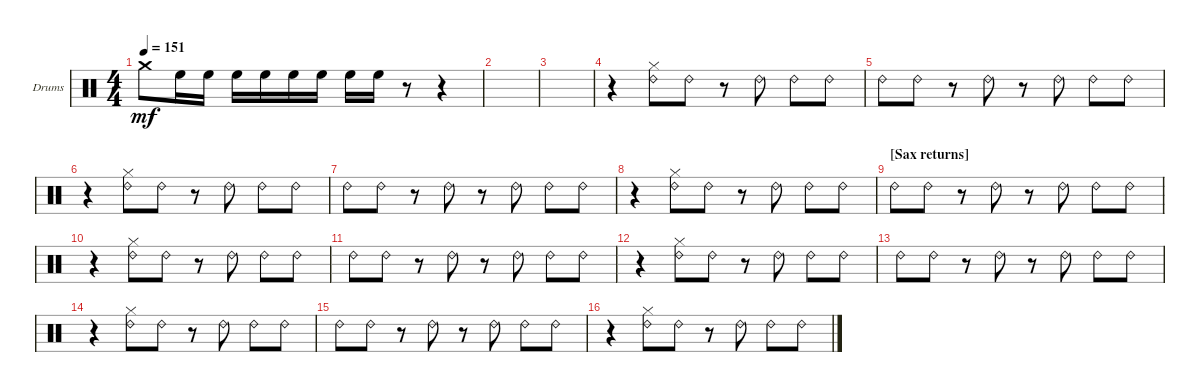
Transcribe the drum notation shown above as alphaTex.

\bracketExtendMode groupsimilarinstruments
\firstSystemTrackNameOrientation horizontal
\otherSystemsTrackNameOrientation horizontal
\track ("Drumkit" "Drums") {instrument percussion}
\staff {score}
\articulation defaults
\ts (4 4)
\tempo 151
\clef neutral
\ks aminor "Crash medium (hit)"{t}.8{dy mf} "High Floor Tom (hit)".16 "High Floor Tom (hit)".16 "High Floor Tom (hit)".16 "High Floor Tom (hit)".16 "High Floor Tom (hit)".16 "High Floor Tom (hit)".16 "High Floor Tom (hit)".16 "High Floor Tom (hit)".16
r.8 r.4 |
|
|
r.4 ("Ride (bell) 2" "Hi-Hat (closed)").8 "Ride (bell) 2".8 r.8 "Ride (bell) 2".8 "Ride (bell) 2".8 "Ride (bell) 2".8 |
"Ride (bell) 2".8 "Ride (bell) 2".8 r.8 "Ride (bell) 2".8 r.8 "Ride (bell) 2".8 "Ride (bell) 2".8 "Ride (bell) 2".8 |
r.4 ("Ride (bell) 2" "Hi-Hat (closed)").8 "Ride (bell) 2".8 r.8 "Ride (bell) 2".8 "Ride (bell) 2".8 "Ride (bell) 2".8 |
"Ride (bell) 2".8 "Ride (bell) 2".8 r.8 "Ride (bell) 2".8 r.8 "Ride (bell) 2".8 "Ride (bell) 2".8 "Ride (bell) 2".8 |
r.4 ("Ride (bell) 2" "Hi-Hat (closed)").8 "Ride (bell) 2".8 r.8 "Ride (bell) 2".8 "Ride (bell) 2".8 "Ride (bell) 2".8 |
\section ("" "[Sax returns]")
"Ride (bell) 2".8 "Ride (bell) 2".8 r.8 "Ride (bell) 2".8 r.8 "Ride (bell) 2".8 "Ride (bell) 2".8 "Ride (bell) 2".8 |
r.4 ("Ride (bell) 2" "Hi-Hat (closed)").8 "Ride (bell) 2".8 r.8 "Ride (bell) 2".8 "Ride (bell) 2".8 "Ride (bell) 2".8 |
"Ride (bell) 2".8 "Ride (bell) 2".8 r.8 "Ride (bell) 2".8 r.8 "Ride (bell) 2".8 "Ride (bell) 2".8 "Ride (bell) 2".8 |
r.4 ("Ride (bell) 2" "Hi-Hat (closed)").8 "Ride (bell) 2".8 r.8 "Ride (bell) 2".8 "Ride (bell) 2".8 "Ride (bell) 2".8 |
"Ride (bell) 2".8 "Ride (bell) 2".8 r.8 "Ride (bell) 2".8 r.8 "Ride (bell) 2".8 "Ride (bell) 2".8 "Ride (bell) 2".8 |
r.4 ("Ride (bell) 2" "Hi-Hat (closed)").8 "Ride (bell) 2".8 r.8 "Ride (bell) 2".8 "Ride (bell) 2".8 "Ride (bell) 2".8 |
"Ride (bell) 2".8 "Ride (bell) 2".8 r.8 "Ride (bell) 2".8 r.8 "Ride (bell) 2".8 "Ride (bell) 2".8 "Ride (bell) 2".8 |
r.4 ("Ride (bell) 2" "Hi-Hat (closed)").8 "Ride (bell) 2".8 r.8 "Ride (bell) 2".8 "Ride (bell) 2".8 "Ride (bell) 2".8
